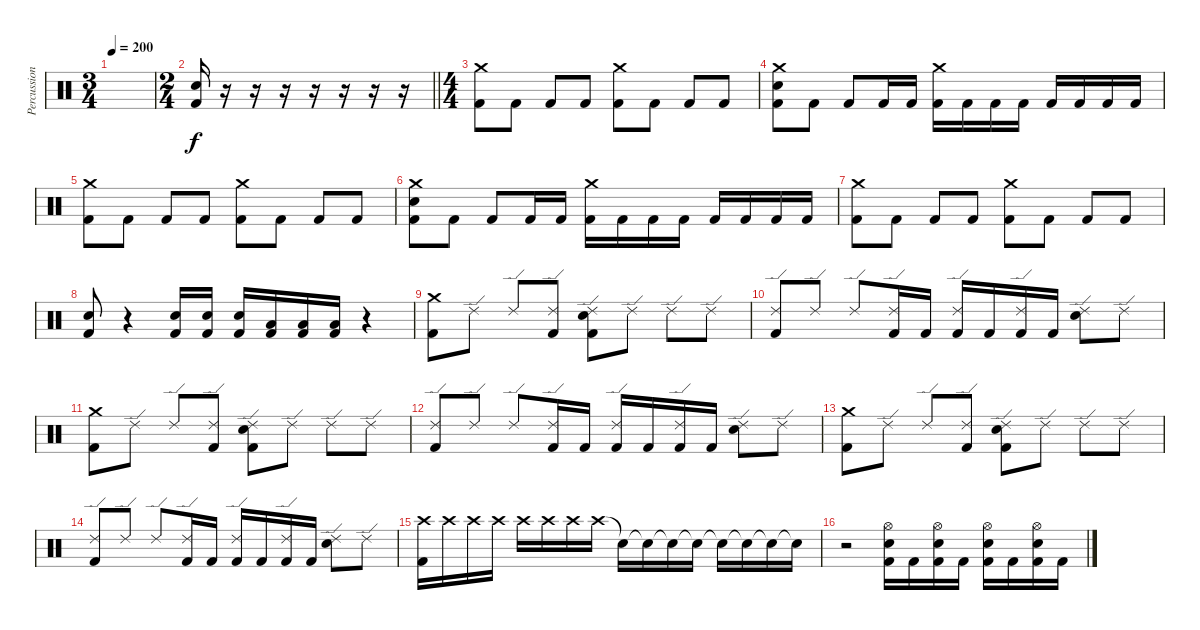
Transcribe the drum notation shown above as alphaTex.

\track ("Percussion" "Percussion") {instrument percussion}
\staff
\articulation defaults
\ts (3 4)
\tempo 200
\clef neutral
\ks c
|
\ts (2 4)
\barLineRight lightlight
("Electric Snare (hit)" "Kick (hit) 2").16 r.16 r.16 r.16 r.16 r.16 r.16 r.16 |
\ts (4 4)
("Crash medium (hit)" "Kick (hit) 2").8 "Kick (hit) 2".8 "Kick (hit) 2".8 "Kick (hit) 2".8 ("Crash medium (hit)" "Kick (hit) 2").8 "Kick (hit) 2".8 "Kick (hit) 2".8 "Kick (hit) 2".8 |
("Crash medium (hit)" "Electric Snare (hit)" "Kick (hit) 2").8 "Kick (hit) 2".8 "Kick (hit) 2".8 "Kick (hit) 2".16 "Kick (hit) 2".16 ("Crash medium (hit)" "Kick (hit) 2").16 "Kick (hit) 2".16 "Kick (hit) 2".16 "Kick (hit) 2".16 "Kick (hit) 2".16 "Kick (hit) 2".16 "Kick (hit) 2".16 "Kick (hit) 2".16 |
("Crash medium (hit)" "Kick (hit) 2").8 "Kick (hit) 2".8 "Kick (hit) 2".8 "Kick (hit) 2".8 ("Crash medium (hit)" "Kick (hit) 2").8 "Kick (hit) 2".8 "Kick (hit) 2".8 "Kick (hit) 2".8 |
("Crash medium (hit)" "Electric Snare (hit)" "Kick (hit) 2").8 "Kick (hit) 2".8 "Kick (hit) 2".8 "Kick (hit) 2".16 "Kick (hit) 2".16 ("Crash medium (hit)" "Kick (hit) 2").16 "Kick (hit) 2".16 "Kick (hit) 2".16 "Kick (hit) 2".16 "Kick (hit) 2".16 "Kick (hit) 2".16 "Kick (hit) 2".16 "Kick (hit) 2".16 |
("Crash medium (hit)" "Kick (hit) 2").8 "Kick (hit) 2".8 "Kick (hit) 2".8 "Kick (hit) 2".8 ("Crash medium (hit)" "Kick (hit) 2").8 "Kick (hit) 2".8 "Kick (hit) 2".8 "Kick (hit) 2".8 |
("Electric Snare (hit)" "Kick (hit) 2").8 r.4 ("Electric Snare (hit)" "Kick (hit) 2").16 ("Electric Snare (hit)" "Kick (hit) 2").16 ("Electric Snare (hit)" "Kick (hit) 2").16 ("Low Tom (hit)" "Kick (hit) 2").16 ("Low Tom (hit)" "Kick (hit) 2").16 ("Low Tom (hit)" "Kick (hit) 2").16 r.4 |
("Crash medium (hit)" "Kick (hit) 2").8 "Ride (edge) 2".8 "Ride (edge) 2".8 ("Ride (edge) 2" "Kick (hit) 2").8 ("Ride (edge) 2" "Electric Snare (hit)" "Kick (hit) 2").8 "Ride (edge) 2".8 "Ride (edge) 2".8 "Ride (edge) 2".8 |
("Ride (edge) 2" "Kick (hit) 2").8 "Ride (edge) 2".8 "Ride (edge) 2".8 ("Ride (edge) 2" "Kick (hit) 2").16 "Kick (hit) 2".16 ("Ride (edge) 2" "Kick (hit) 2").16 "Kick (hit) 2".16 ("Ride (edge) 2" "Kick (hit) 2").16 "Kick (hit) 2".16 ("Ride (edge) 2" "Electric Snare (hit)").8 "Ride (edge) 2".8 |
("Crash medium (hit)" "Kick (hit) 2").8 "Ride (edge) 2".8 "Ride (edge) 2".8 ("Ride (edge) 2" "Kick (hit) 2").8 ("Ride (edge) 2" "Electric Snare (hit)" "Kick (hit) 2").8 "Ride (edge) 2".8 "Ride (edge) 2".8 "Ride (edge) 2".8 |
("Ride (edge) 2" "Kick (hit) 2").8 "Ride (edge) 2".8 "Ride (edge) 2".8 ("Ride (edge) 2" "Kick (hit) 2").16 "Kick (hit) 2".16 ("Ride (edge) 2" "Kick (hit) 2").16 "Kick (hit) 2".16 ("Ride (edge) 2" "Kick (hit) 2").16 "Kick (hit) 2".16 ("Ride (edge) 2" "Electric Snare (hit)").8 "Ride (edge) 2".8 |
("Crash medium (hit)" "Kick (hit) 2").8 "Ride (edge) 2".8 "Ride (edge) 2".8 ("Ride (edge) 2" "Kick (hit) 2").8 ("Ride (edge) 2" "Electric Snare (hit)" "Kick (hit) 2").8 "Ride (edge) 2".8 "Ride (edge) 2".8 "Ride (edge) 2".8 |
("Ride (edge) 2" "Kick (hit) 2").8 "Ride (edge) 2".8 "Ride (edge) 2".8 ("Ride (edge) 2" "Kick (hit) 2").16 "Kick (hit) 2".16 ("Ride (edge) 2" "Kick (hit) 2").16 "Kick (hit) 2".16 ("Ride (edge) 2" "Kick (hit) 2").16 "Kick (hit) 2".16 ("Ride (edge) 2" "Electric Snare (hit)").8 "Ride (edge) 2".8 |
("Crash high (hit)" "Kick (hit) 2").16 "Crash high (hit)".16 "Crash high (hit)".16 "Crash high (hit)".16 "Crash high (hit)".16 "Crash high (hit)".16 "Crash high (hit)".16 "Crash high (hit)".16 "Snare (hit)"{t}.16 "Snare (hit)"{t}.16 "Snare (hit)"{t}.16 "Snare (hit)"{t}.16 "Snare (hit)"{t}.16 "Snare (hit)"{t}.16 "Snare (hit)"{t}.16 "Snare (hit)"{t}.16 |
r.2 ("Hi-Hat (open)" "Electric Snare (hit)" "Kick (hit) 2").16 "Kick (hit) 2".16 ("Hi-Hat (open)" "Electric Snare (hit)" "Kick (hit) 2").16 "Kick (hit) 2".16 ("Hi-Hat (open)" "Electric Snare (hit)" "Kick (hit) 2").16 "Kick (hit) 2".16 ("Hi-Hat (open)" "Electric Snare (hit)" "Kick (hit) 2").16 "Kick (hit) 2".16
